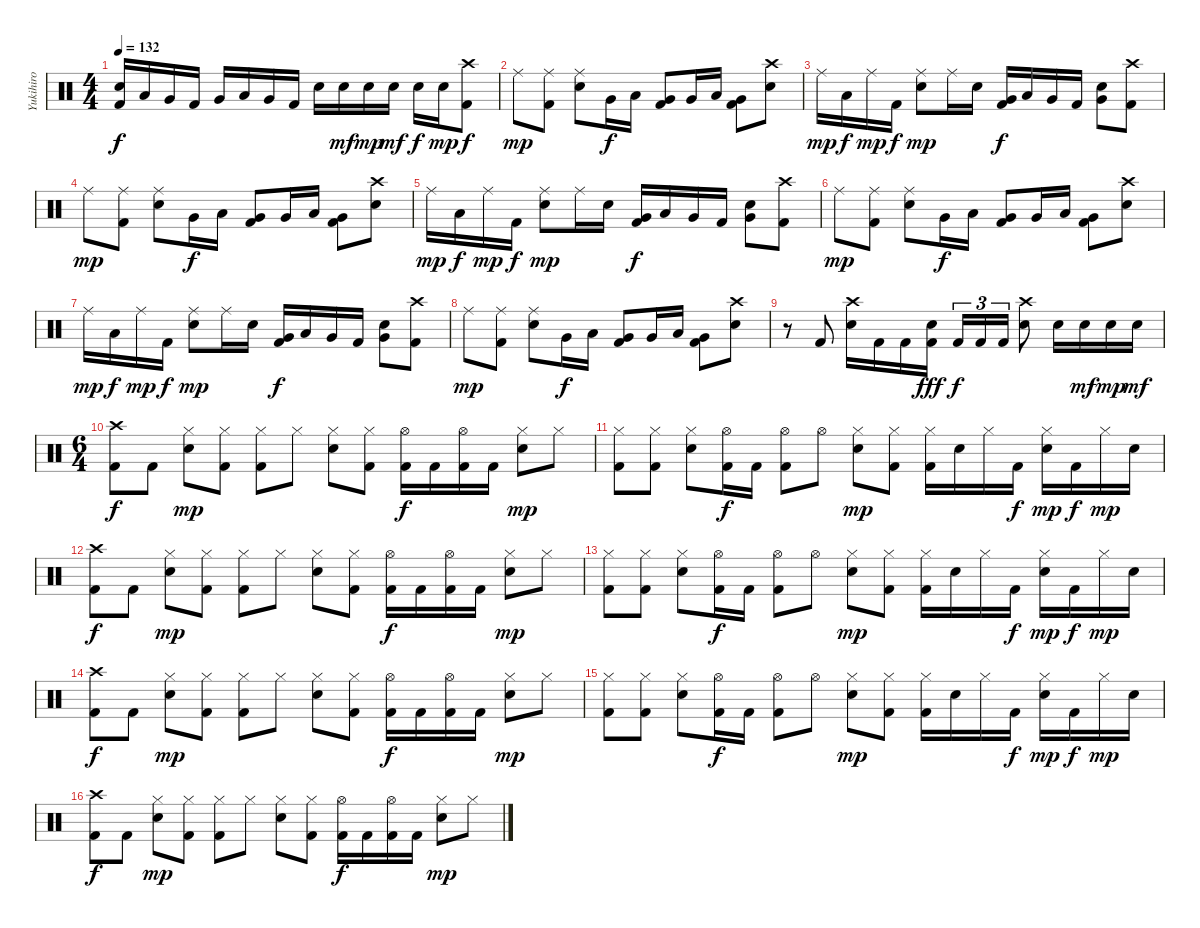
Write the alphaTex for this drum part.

\track ("Yukihiro" "Yukihiro") {instrument percussion}
\staff {score}
\articulation defaults
\ts (4 4)
\tempo 132
\clef neutral
\ks c
("Electric Snare (hit)" "Kick (hit) 2").16{dy f} "Low Tom (hit)".16 "Very Low Tom (hit)".16 "Kick (hit) 2".16 "Very Low Tom (hit)".16 "Low Tom (hit)".16 "Very Low Tom (hit)".16 "Kick (hit) 2".16 "Electric Snare (hit)".16 "Electric Snare (hit)".16{dy mf} "Electric Snare (hit)".16{dy mp} "Electric Snare (hit)".16{dy mf} "Electric Snare (hit)".16{dy f} "Electric Snare (hit)".16{dy mp} ("Crash high (hit)" "Kick (hit) 2").8{dy f} |
"Ride (middle)".8{dy mp} ("Ride (middle)" "Kick (hit) 2").8 ("Ride (middle)" "Electric Snare (hit)").8 "Very Low Tom (hit)".16{dy f} "Low Tom (hit)".16 ("Very Low Tom (hit)" "Kick (hit) 2").8 "Very Low Tom (hit)".16 "Low Tom (hit)".16 ("Very Low Tom (hit)" "Kick (hit) 2").8 ("Crash high (hit)" "Electric Snare (hit)").8 |
"Ride (middle)".16{dy mp} "Low Tom (hit)".16{dy f} "Ride (middle)".16{dy mp} "Kick (hit) 2".16{dy f} ("Ride (middle)" "Electric Snare (hit)").8{dy mp} "Ride (middle)".16 "Electric Snare (hit)".16 ("Very Low Tom (hit)" "Kick (hit) 2").16{dy f} "Low Tom (hit)".16 "Very Low Tom (hit)".16 "Kick (hit) 2".16 ("Electric Snare (hit)" "Very Low Tom (hit)").8 ("Crash high (hit)" "Kick (hit) 2").8 |
"Ride (middle)".8{dy mp} ("Ride (middle)" "Kick (hit) 2").8 ("Ride (middle)" "Electric Snare (hit)").8 "Very Low Tom (hit)".16{dy f} "Low Tom (hit)".16 ("Very Low Tom (hit)" "Kick (hit) 2").8 "Very Low Tom (hit)".16 "Low Tom (hit)".16 ("Very Low Tom (hit)" "Kick (hit) 2").8 ("Crash high (hit)" "Electric Snare (hit)").8 |
"Ride (middle)".16{dy mp} "Low Tom (hit)".16{dy f} "Ride (middle)".16{dy mp} "Kick (hit) 2".16{dy f} ("Ride (middle)" "Electric Snare (hit)").8{dy mp} "Ride (middle)".16 "Electric Snare (hit)".16 ("Very Low Tom (hit)" "Kick (hit) 2").16{dy f} "Low Tom (hit)".16 "Very Low Tom (hit)".16 "Kick (hit) 2".16 ("Electric Snare (hit)" "Very Low Tom (hit)").8 ("Crash high (hit)" "Kick (hit) 2").8 |
"Ride (middle)".8{dy mp} ("Ride (middle)" "Kick (hit) 2").8 ("Ride (middle)" "Electric Snare (hit)").8 "Very Low Tom (hit)".16{dy f} "Low Tom (hit)".16 ("Very Low Tom (hit)" "Kick (hit) 2").8 "Very Low Tom (hit)".16 "Low Tom (hit)".16 ("Very Low Tom (hit)" "Kick (hit) 2").8 ("Crash high (hit)" "Electric Snare (hit)").8 |
"Ride (middle)".16{dy mp} "Low Tom (hit)".16{dy f} "Ride (middle)".16{dy mp} "Kick (hit) 2".16{dy f} ("Ride (middle)" "Electric Snare (hit)").8{dy mp} "Ride (middle)".16 "Electric Snare (hit)".16 ("Very Low Tom (hit)" "Kick (hit) 2").16{dy f} "Low Tom (hit)".16 "Very Low Tom (hit)".16 "Kick (hit) 2".16 ("Electric Snare (hit)" "Very Low Tom (hit)").8 ("Crash high (hit)" "Kick (hit) 2").8 |
"Ride (middle)".8{dy mp} ("Ride (middle)" "Kick (hit) 2").8 ("Ride (middle)" "Electric Snare (hit)").8 "Very Low Tom (hit)".16{dy f} "Low Tom (hit)".16 ("Very Low Tom (hit)" "Kick (hit) 2").8 "Very Low Tom (hit)".16 "Low Tom (hit)".16 ("Very Low Tom (hit)" "Kick (hit) 2").8 ("Crash high (hit)" "Electric Snare (hit)").8 |
r.8 "Kick (hit) 2".8 ("Crash high (hit)" "Electric Snare (hit)").16 "Kick (hit) 2".16 "Kick (hit) 2".16 ("Electric Snare (hit)" "Kick (hit) 2").16{dy fff} "Kick (hit) 2".16{tu (3 2) dy f} "Kick (hit) 2".16{tu (3 2)} "Kick (hit) 2".16{tu (3 2)} ("Crash high (hit)" "Electric Snare (hit)").8 "Electric Snare (hit)".16 "Electric Snare (hit)".16{dy mf} "Electric Snare (hit)".16{dy mp} "Electric Snare (hit)".16{dy mf} |
\ts (6 4)
("Crash high (hit)" "Kick (hit) 2").8{dy f} "Kick (hit) 2".8 ("Hi-Hat (closed)" "Electric Snare (hit)").8{dy mp} ("Hi-Hat (closed)" "Kick (hit) 2").8 ("Hi-Hat (closed)" "Kick (hit) 2").8 "Hi-Hat (closed)".8 ("Hi-Hat (closed)" "Electric Snare (hit)").8 ("Hi-Hat (closed)" "Kick (hit) 2").8 ("Hi-Hat (open)" "Kick (hit) 2").16{dy f} "Kick (hit) 2".16 ("Hi-Hat (open)" "Kick (hit) 2").16 "Kick (hit) 2".16 ("Hi-Hat (closed)" "Electric Snare (hit)").8{dy mp} "Hi-Hat (closed)".8 |
("Hi-Hat (closed)" "Kick (hit) 2").8 ("Hi-Hat (closed)" "Kick (hit) 2").8 ("Hi-Hat (closed)" "Electric Snare (hit)").8 ("Hi-Hat (open)" "Kick (hit) 2").16{dy f} "Kick (hit) 2".16 ("Hi-Hat (open)" "Kick (hit) 2").8 "Hi-Hat (open)".8 ("Hi-Hat (closed)" "Electric Snare (hit)").8{dy mp} ("Hi-Hat (closed)" "Kick (hit) 2").8 ("Hi-Hat (closed)" "Kick (hit) 2").16 "Electric Snare (hit)".16 "Hi-Hat (closed)".16 "Kick (hit) 2".16{dy f} ("Hi-Hat (closed)" "Electric Snare (hit)").16{dy mp} "Kick (hit) 2".16{dy f} "Hi-Hat (closed)".16{dy mp} "Electric Snare (hit)".16 |
("Crash high (hit)" "Kick (hit) 2").8{dy f} "Kick (hit) 2".8 ("Hi-Hat (closed)" "Electric Snare (hit)").8{dy mp} ("Hi-Hat (closed)" "Kick (hit) 2").8 ("Hi-Hat (closed)" "Kick (hit) 2").8 "Hi-Hat (closed)".8 ("Hi-Hat (closed)" "Electric Snare (hit)").8 ("Hi-Hat (closed)" "Kick (hit) 2").8 ("Hi-Hat (open)" "Kick (hit) 2").16{dy f} "Kick (hit) 2".16 ("Hi-Hat (open)" "Kick (hit) 2").16 "Kick (hit) 2".16 ("Hi-Hat (closed)" "Electric Snare (hit)").8{dy mp} "Hi-Hat (closed)".8 |
("Hi-Hat (closed)" "Kick (hit) 2").8 ("Hi-Hat (closed)" "Kick (hit) 2").8 ("Hi-Hat (closed)" "Electric Snare (hit)").8 ("Hi-Hat (open)" "Kick (hit) 2").16{dy f} "Kick (hit) 2".16 ("Hi-Hat (open)" "Kick (hit) 2").8 "Hi-Hat (open)".8 ("Hi-Hat (closed)" "Electric Snare (hit)").8{dy mp} ("Hi-Hat (closed)" "Kick (hit) 2").8 ("Hi-Hat (closed)" "Kick (hit) 2").16 "Electric Snare (hit)".16 "Hi-Hat (closed)".16 "Kick (hit) 2".16{dy f} ("Hi-Hat (closed)" "Electric Snare (hit)").16{dy mp} "Kick (hit) 2".16{dy f} "Hi-Hat (closed)".16{dy mp} "Electric Snare (hit)".16 |
("Crash high (hit)" "Kick (hit) 2").8{dy f} "Kick (hit) 2".8 ("Hi-Hat (closed)" "Electric Snare (hit)").8{dy mp} ("Hi-Hat (closed)" "Kick (hit) 2").8 ("Hi-Hat (closed)" "Kick (hit) 2").8 "Hi-Hat (closed)".8 ("Hi-Hat (closed)" "Electric Snare (hit)").8 ("Hi-Hat (closed)" "Kick (hit) 2").8 ("Hi-Hat (open)" "Kick (hit) 2").16{dy f} "Kick (hit) 2".16 ("Hi-Hat (open)" "Kick (hit) 2").16 "Kick (hit) 2".16 ("Hi-Hat (closed)" "Electric Snare (hit)").8{dy mp} "Hi-Hat (closed)".8 |
("Hi-Hat (closed)" "Kick (hit) 2").8 ("Hi-Hat (closed)" "Kick (hit) 2").8 ("Hi-Hat (closed)" "Electric Snare (hit)").8 ("Hi-Hat (open)" "Kick (hit) 2").16{dy f} "Kick (hit) 2".16 ("Hi-Hat (open)" "Kick (hit) 2").8 "Hi-Hat (open)".8 ("Hi-Hat (closed)" "Electric Snare (hit)").8{dy mp} ("Hi-Hat (closed)" "Kick (hit) 2").8 ("Hi-Hat (closed)" "Kick (hit) 2").16 "Electric Snare (hit)".16 "Hi-Hat (closed)".16 "Kick (hit) 2".16{dy f} ("Hi-Hat (closed)" "Electric Snare (hit)").16{dy mp} "Kick (hit) 2".16{dy f} "Hi-Hat (closed)".16{dy mp} "Electric Snare (hit)".16 |
("Crash high (hit)" "Kick (hit) 2").8{dy f} "Kick (hit) 2".8 ("Hi-Hat (closed)" "Electric Snare (hit)").8{dy mp} ("Hi-Hat (closed)" "Kick (hit) 2").8 ("Hi-Hat (closed)" "Kick (hit) 2").8 "Hi-Hat (closed)".8 ("Hi-Hat (closed)" "Electric Snare (hit)").8 ("Hi-Hat (closed)" "Kick (hit) 2").8 ("Hi-Hat (open)" "Kick (hit) 2").16{dy f} "Kick (hit) 2".16 ("Hi-Hat (open)" "Kick (hit) 2").16 "Kick (hit) 2".16 ("Hi-Hat (closed)" "Electric Snare (hit)").8{dy mp} "Hi-Hat (closed)".8
